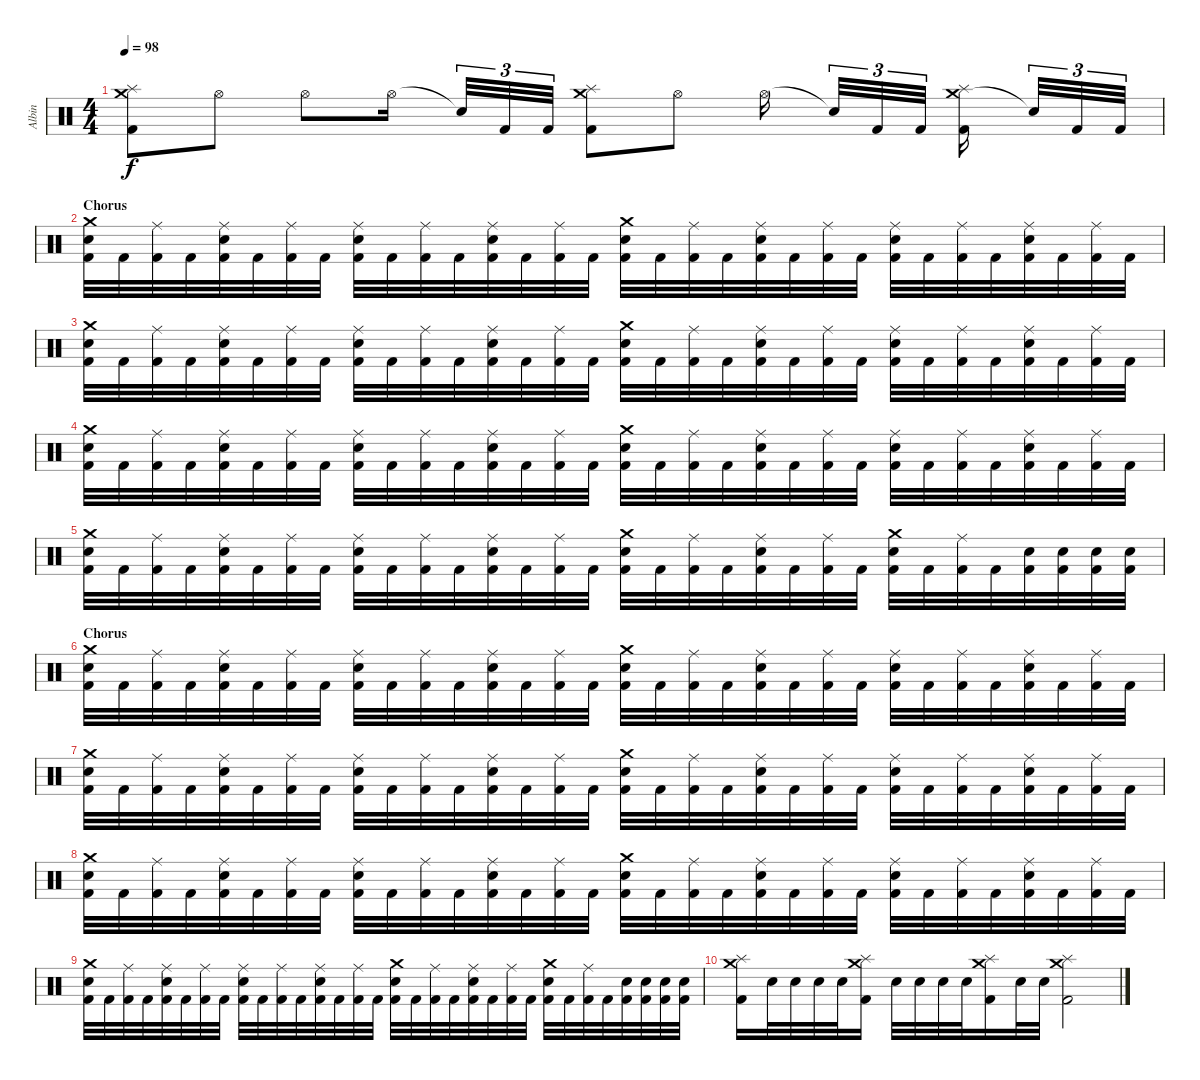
\track ("Albin" "Albin") {instrument percussion}
\staff {score}
\articulation defaults
\ts (4 4)
\tempo 98
\clef neutral
\ks c
("Crash medium (hit)" "Splash (hit)" "Kick (hit) 2").8{dy f} "Hi-Hat (open)".8 "Hi-Hat (open)".8 "Hi-Hat (open)".16 "Snare (hit)"{t}.32{tu (3 2)} "Kick (hit) 2".32{tu (3 2)} "Kick (hit) 2".32{tu (3 2)} ("Crash medium (hit)" "Splash (hit)" "Kick (hit) 2").8 "Hi-Hat (open)".8 "Hi-Hat (open)".16 "Snare (hit)"{t}.32{tu (3 2)} "Kick (hit) 2".32{tu (3 2)} "Kick (hit) 2".32{tu (3 2)} ("Crash medium (hit)" "Splash (hit)" "Kick (hit) 2").16 "Snare (hit)"{t}.32{tu (3 2)} "Kick (hit) 2".32{tu (3 2)} "Kick (hit) 2".32{tu (3 2)} |
\section ("" "Chorus")
("Crash medium (hit)" "Electric Snare (hit)" "Kick (hit) 2").32 "Kick (hit) 2".32 ("Ride (middle)" "Kick (hit) 2").32 "Kick (hit) 2".32 ("Ride (middle)" "Electric Snare (hit)" "Kick (hit) 2").32 "Kick (hit) 2".32 ("Ride (middle)" "Kick (hit) 2").32 "Kick (hit) 2".32 ("Ride (middle)" "Electric Snare (hit)" "Kick (hit) 2").32 "Kick (hit) 2".32 ("Ride (middle)" "Kick (hit) 2").32 "Kick (hit) 2".32 ("Ride (middle)" "Electric Snare (hit)" "Kick (hit) 2").32 "Kick (hit) 2".32 ("Ride (middle)" "Kick (hit) 2").32 "Kick (hit) 2".32 ("Crash medium (hit)" "Electric Snare (hit)" "Kick (hit) 2").32 "Kick (hit) 2".32 ("Ride (middle)" "Kick (hit) 2").32 "Kick (hit) 2".32 ("Ride (middle)" "Electric Snare (hit)" "Kick (hit) 2").32 "Kick (hit) 2".32 ("Ride (middle)" "Kick (hit) 2").32 "Kick (hit) 2".32 ("Ride (middle)" "Electric Snare (hit)" "Kick (hit) 2").32 "Kick (hit) 2".32 ("Ride (middle)" "Kick (hit) 2").32 "Kick (hit) 2".32 ("Ride (middle)" "Electric Snare (hit)" "Kick (hit) 2").32 "Kick (hit) 2".32 ("Ride (middle)" "Kick (hit) 2").32 "Kick (hit) 2".32 |
("Crash medium (hit)" "Electric Snare (hit)" "Kick (hit) 2").32 "Kick (hit) 2".32 ("Ride (middle)" "Kick (hit) 2").32 "Kick (hit) 2".32 ("Ride (middle)" "Electric Snare (hit)" "Kick (hit) 2").32 "Kick (hit) 2".32 ("Ride (middle)" "Kick (hit) 2").32 "Kick (hit) 2".32 ("Ride (middle)" "Electric Snare (hit)" "Kick (hit) 2").32 "Kick (hit) 2".32 ("Ride (middle)" "Kick (hit) 2").32 "Kick (hit) 2".32 ("Ride (middle)" "Electric Snare (hit)" "Kick (hit) 2").32 "Kick (hit) 2".32 ("Ride (middle)" "Kick (hit) 2").32 "Kick (hit) 2".32 ("Crash medium (hit)" "Electric Snare (hit)" "Kick (hit) 2").32 "Kick (hit) 2".32 ("Ride (middle)" "Kick (hit) 2").32 "Kick (hit) 2".32 ("Ride (middle)" "Electric Snare (hit)" "Kick (hit) 2").32 "Kick (hit) 2".32 ("Ride (middle)" "Kick (hit) 2").32 "Kick (hit) 2".32 ("Ride (middle)" "Electric Snare (hit)" "Kick (hit) 2").32 "Kick (hit) 2".32 ("Ride (middle)" "Kick (hit) 2").32 "Kick (hit) 2".32 ("Ride (middle)" "Electric Snare (hit)" "Kick (hit) 2").32 "Kick (hit) 2".32 ("Ride (middle)" "Kick (hit) 2").32 "Kick (hit) 2".32 |
("Crash medium (hit)" "Electric Snare (hit)" "Kick (hit) 2").32 "Kick (hit) 2".32 ("Ride (middle)" "Kick (hit) 2").32 "Kick (hit) 2".32 ("Ride (middle)" "Electric Snare (hit)" "Kick (hit) 2").32 "Kick (hit) 2".32 ("Ride (middle)" "Kick (hit) 2").32 "Kick (hit) 2".32 ("Ride (middle)" "Electric Snare (hit)" "Kick (hit) 2").32 "Kick (hit) 2".32 ("Ride (middle)" "Kick (hit) 2").32 "Kick (hit) 2".32 ("Ride (middle)" "Electric Snare (hit)" "Kick (hit) 2").32 "Kick (hit) 2".32 ("Ride (middle)" "Kick (hit) 2").32 "Kick (hit) 2".32 ("Crash medium (hit)" "Electric Snare (hit)" "Kick (hit) 2").32 "Kick (hit) 2".32 ("Ride (middle)" "Kick (hit) 2").32 "Kick (hit) 2".32 ("Ride (middle)" "Electric Snare (hit)" "Kick (hit) 2").32 "Kick (hit) 2".32 ("Ride (middle)" "Kick (hit) 2").32 "Kick (hit) 2".32 ("Ride (middle)" "Electric Snare (hit)" "Kick (hit) 2").32 "Kick (hit) 2".32 ("Ride (middle)" "Kick (hit) 2").32 "Kick (hit) 2".32 ("Ride (middle)" "Electric Snare (hit)" "Kick (hit) 2").32 "Kick (hit) 2".32 ("Ride (middle)" "Kick (hit) 2").32 "Kick (hit) 2".32 |
("Crash medium (hit)" "Electric Snare (hit)" "Kick (hit) 2").32 "Kick (hit) 2".32 ("Ride (middle)" "Kick (hit) 2").32 "Kick (hit) 2".32 ("Ride (middle)" "Electric Snare (hit)" "Kick (hit) 2").32 "Kick (hit) 2".32 ("Ride (middle)" "Kick (hit) 2").32 "Kick (hit) 2".32 ("Ride (middle)" "Electric Snare (hit)" "Kick (hit) 2").32 "Kick (hit) 2".32 ("Ride (middle)" "Kick (hit) 2").32 "Kick (hit) 2".32 ("Ride (middle)" "Electric Snare (hit)" "Kick (hit) 2").32 "Kick (hit) 2".32 ("Ride (middle)" "Kick (hit) 2").32 "Kick (hit) 2".32 ("Crash medium (hit)" "Electric Snare (hit)" "Kick (hit) 2").32 "Kick (hit) 2".32 ("Ride (middle)" "Kick (hit) 2").32 "Kick (hit) 2".32 ("Ride (middle)" "Electric Snare (hit)" "Kick (hit) 2").32 "Kick (hit) 2".32 ("Ride (middle)" "Kick (hit) 2").32 "Kick (hit) 2".32 ("Crash medium (hit)" "Electric Snare (hit)" "Kick (hit) 2").32 "Kick (hit) 2".32 ("Ride (middle)" "Kick (hit) 2").32 "Kick (hit) 2".32 ("Electric Snare (hit)" "Kick (hit) 2").32 ("Electric Snare (hit)" "Kick (hit) 2").32 ("Electric Snare (hit)" "Kick (hit) 2").32 ("Electric Snare (hit)" "Kick (hit) 2").32 |
\section ("" "Chorus")
("Crash medium (hit)" "Electric Snare (hit)" "Kick (hit) 2").32 "Kick (hit) 2".32 ("Ride (middle)" "Kick (hit) 2").32 "Kick (hit) 2".32 ("Ride (middle)" "Electric Snare (hit)" "Kick (hit) 2").32 "Kick (hit) 2".32 ("Ride (middle)" "Kick (hit) 2").32 "Kick (hit) 2".32 ("Ride (middle)" "Electric Snare (hit)" "Kick (hit) 2").32 "Kick (hit) 2".32 ("Ride (middle)" "Kick (hit) 2").32 "Kick (hit) 2".32 ("Ride (middle)" "Electric Snare (hit)" "Kick (hit) 2").32 "Kick (hit) 2".32 ("Ride (middle)" "Kick (hit) 2").32 "Kick (hit) 2".32 ("Crash medium (hit)" "Electric Snare (hit)" "Kick (hit) 2").32 "Kick (hit) 2".32 ("Ride (middle)" "Kick (hit) 2").32 "Kick (hit) 2".32 ("Ride (middle)" "Electric Snare (hit)" "Kick (hit) 2").32 "Kick (hit) 2".32 ("Ride (middle)" "Kick (hit) 2").32 "Kick (hit) 2".32 ("Ride (middle)" "Electric Snare (hit)" "Kick (hit) 2").32 "Kick (hit) 2".32 ("Ride (middle)" "Kick (hit) 2").32 "Kick (hit) 2".32 ("Ride (middle)" "Electric Snare (hit)" "Kick (hit) 2").32 "Kick (hit) 2".32 ("Ride (middle)" "Kick (hit) 2").32 "Kick (hit) 2".32 |
("Crash medium (hit)" "Electric Snare (hit)" "Kick (hit) 2").32 "Kick (hit) 2".32 ("Ride (middle)" "Kick (hit) 2").32 "Kick (hit) 2".32 ("Ride (middle)" "Electric Snare (hit)" "Kick (hit) 2").32 "Kick (hit) 2".32 ("Ride (middle)" "Kick (hit) 2").32 "Kick (hit) 2".32 ("Ride (middle)" "Electric Snare (hit)" "Kick (hit) 2").32 "Kick (hit) 2".32 ("Ride (middle)" "Kick (hit) 2").32 "Kick (hit) 2".32 ("Ride (middle)" "Electric Snare (hit)" "Kick (hit) 2").32 "Kick (hit) 2".32 ("Ride (middle)" "Kick (hit) 2").32 "Kick (hit) 2".32 ("Crash medium (hit)" "Electric Snare (hit)" "Kick (hit) 2").32 "Kick (hit) 2".32 ("Ride (middle)" "Kick (hit) 2").32 "Kick (hit) 2".32 ("Ride (middle)" "Electric Snare (hit)" "Kick (hit) 2").32 "Kick (hit) 2".32 ("Ride (middle)" "Kick (hit) 2").32 "Kick (hit) 2".32 ("Ride (middle)" "Electric Snare (hit)" "Kick (hit) 2").32 "Kick (hit) 2".32 ("Ride (middle)" "Kick (hit) 2").32 "Kick (hit) 2".32 ("Ride (middle)" "Electric Snare (hit)" "Kick (hit) 2").32 "Kick (hit) 2".32 ("Ride (middle)" "Kick (hit) 2").32 "Kick (hit) 2".32 |
("Crash medium (hit)" "Electric Snare (hit)" "Kick (hit) 2").32 "Kick (hit) 2".32 ("Ride (middle)" "Kick (hit) 2").32 "Kick (hit) 2".32 ("Ride (middle)" "Electric Snare (hit)" "Kick (hit) 2").32 "Kick (hit) 2".32 ("Ride (middle)" "Kick (hit) 2").32 "Kick (hit) 2".32 ("Ride (middle)" "Electric Snare (hit)" "Kick (hit) 2").32 "Kick (hit) 2".32 ("Ride (middle)" "Kick (hit) 2").32 "Kick (hit) 2".32 ("Ride (middle)" "Electric Snare (hit)" "Kick (hit) 2").32 "Kick (hit) 2".32 ("Ride (middle)" "Kick (hit) 2").32 "Kick (hit) 2".32 ("Crash medium (hit)" "Electric Snare (hit)" "Kick (hit) 2").32 "Kick (hit) 2".32 ("Ride (middle)" "Kick (hit) 2").32 "Kick (hit) 2".32 ("Ride (middle)" "Electric Snare (hit)" "Kick (hit) 2").32 "Kick (hit) 2".32 ("Ride (middle)" "Kick (hit) 2").32 "Kick (hit) 2".32 ("Ride (middle)" "Electric Snare (hit)" "Kick (hit) 2").32 "Kick (hit) 2".32 ("Ride (middle)" "Kick (hit) 2").32 "Kick (hit) 2".32 ("Ride (middle)" "Electric Snare (hit)" "Kick (hit) 2").32 "Kick (hit) 2".32 ("Ride (middle)" "Kick (hit) 2").32 "Kick (hit) 2".32 |
("Crash medium (hit)" "Electric Snare (hit)" "Kick (hit) 2").32 "Kick (hit) 2".32 ("Ride (middle)" "Kick (hit) 2").32 "Kick (hit) 2".32 ("Ride (middle)" "Electric Snare (hit)" "Kick (hit) 2").32 "Kick (hit) 2".32 ("Ride (middle)" "Kick (hit) 2").32 "Kick (hit) 2".32 ("Ride (middle)" "Electric Snare (hit)" "Kick (hit) 2").32 "Kick (hit) 2".32 ("Ride (middle)" "Kick (hit) 2").32 "Kick (hit) 2".32 ("Ride (middle)" "Electric Snare (hit)" "Kick (hit) 2").32 "Kick (hit) 2".32 ("Ride (middle)" "Kick (hit) 2").32 "Kick (hit) 2".32 ("Crash medium (hit)" "Electric Snare (hit)" "Kick (hit) 2").32 "Kick (hit) 2".32 ("Ride (middle)" "Kick (hit) 2").32 "Kick (hit) 2".32 ("Ride (middle)" "Electric Snare (hit)" "Kick (hit) 2").32 "Kick (hit) 2".32 ("Ride (middle)" "Kick (hit) 2").32 "Kick (hit) 2".32 ("Crash medium (hit)" "Electric Snare (hit)" "Kick (hit) 2").32 "Kick (hit) 2".32 ("Ride (middle)" "Kick (hit) 2").32 "Kick (hit) 2".32 ("Electric Snare (hit)" "Kick (hit) 2").32 ("Electric Snare (hit)" "Kick (hit) 2").32 ("Electric Snare (hit)" "Kick (hit) 2").32 ("Electric Snare (hit)" "Kick (hit) 2").32 |
("Crash medium (hit)" "Splash (hit)" "Kick (hit) 2").16 "Electric Snare (hit)".32 "Electric Snare (hit)".32 "Electric Snare (hit)".32 "Electric Snare (hit)".32 ("Crash medium (hit)" "Splash (hit)" "Kick (hit) 2").16 "Electric Snare (hit)".32 "Electric Snare (hit)".32 "Electric Snare (hit)".32 "Electric Snare (hit)".32 ("Crash medium (hit)" "Splash (hit)" "Kick (hit) 2").16 "Electric Snare (hit)".32 "Electric Snare (hit)".32 ("Crash medium (hit)" "Splash (hit)" "Kick (hit) 2").2
